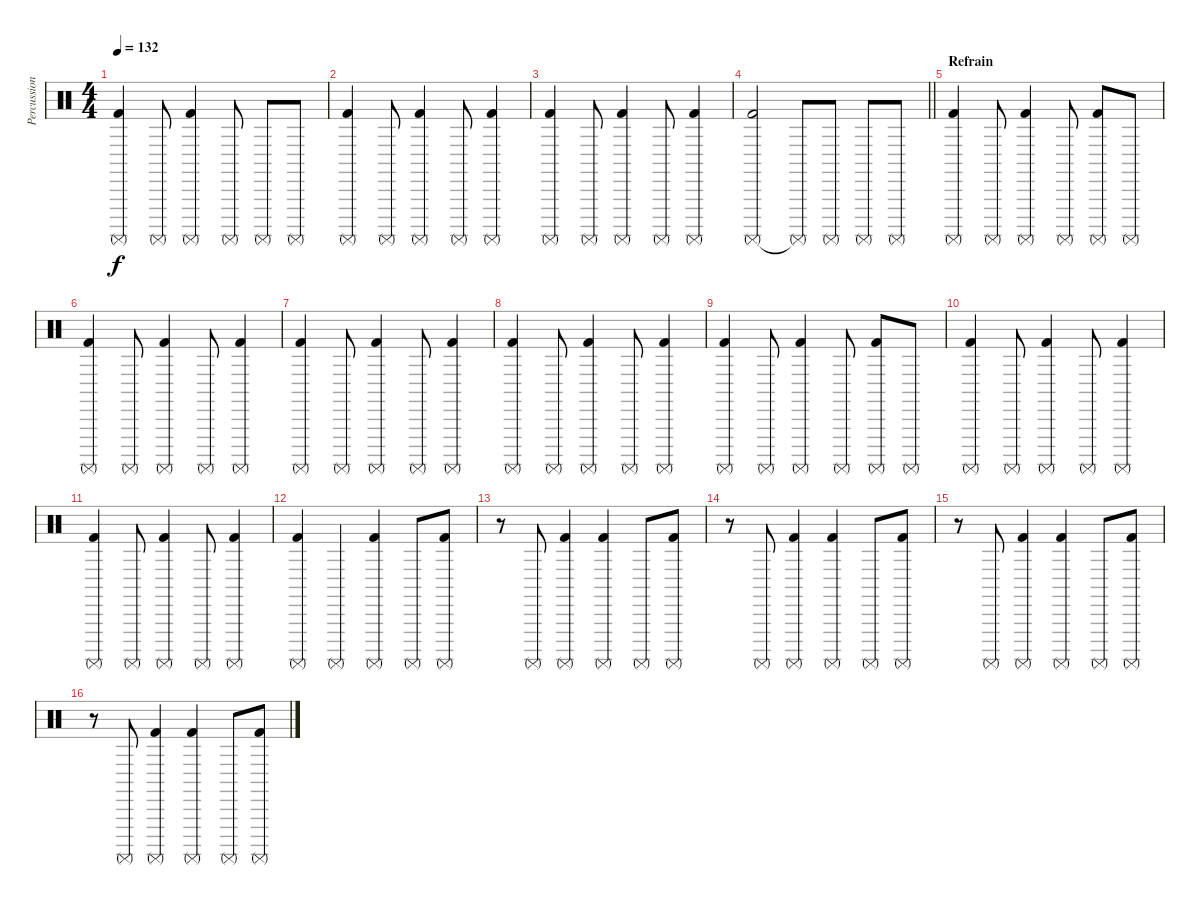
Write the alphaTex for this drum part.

\track ("Percussion" "Percussion") {instrument percussion}
\staff {score}
\articulation defaults
\ts (4 4)
\section ("" "")
\tempo 132
\clef neutral
\ks c
("Surdo (mute)" "Kick (hit) 2").4{dy f} "Surdo (mute)".8 ("Surdo (mute)" "Kick (hit) 2").4 "Surdo (mute)".8 "Surdo (mute)".8 "Surdo (mute)".8 |
("Surdo (mute)" "Kick (hit) 2").4 "Surdo (mute)".8 ("Surdo (mute)" "Kick (hit) 2").4 "Surdo (mute)".8 ("Surdo (mute)" "Kick (hit) 2").4 |
("Surdo (mute)" "Kick (hit) 2").4 "Surdo (mute)".8 ("Surdo (mute)" "Kick (hit) 2").4 "Surdo (mute)".8 ("Surdo (mute)" "Kick (hit) 2").4 |
\barLineRight lightlight
("Surdo (mute)" "Kick (hit) 2").2 "Surdo (mute)"{t}.8 "Surdo (mute)".8 "Surdo (mute)".8 "Surdo (mute)".8 |
\section ("" "Refrain")
("Surdo (mute)" "Kick (hit) 2").4 "Surdo (mute)".8 ("Surdo (mute)" "Kick (hit) 2").4 "Surdo (mute)".8 ("Surdo (mute)" "Kick (hit) 2").8 "Surdo (mute)".8 |
("Surdo (mute)" "Kick (hit) 2").4 "Surdo (mute)".8 ("Surdo (mute)" "Kick (hit) 2").4 "Surdo (mute)".8 ("Surdo (mute)" "Kick (hit) 2").4 |
("Surdo (mute)" "Kick (hit) 2").4 "Surdo (mute)".8 ("Surdo (mute)" "Kick (hit) 2").4 "Surdo (mute)".8 ("Surdo (mute)" "Kick (hit) 2").4 |
("Surdo (mute)" "Kick (hit) 2").4 "Surdo (mute)".8 ("Surdo (mute)" "Kick (hit) 2").4 "Surdo (mute)".8 ("Surdo (mute)" "Kick (hit) 2").4 |
("Surdo (mute)" "Kick (hit) 2").4 "Surdo (mute)".8 ("Surdo (mute)" "Kick (hit) 2").4 "Surdo (mute)".8 ("Surdo (mute)" "Kick (hit) 2").8 "Surdo (mute)".8 |
("Surdo (mute)" "Kick (hit) 2").4 "Surdo (mute)".8 ("Surdo (mute)" "Kick (hit) 2").4 "Surdo (mute)".8 ("Surdo (mute)" "Kick (hit) 2").4 |
("Surdo (mute)" "Kick (hit) 2").4 "Surdo (mute)".8 ("Surdo (mute)" "Kick (hit) 2").4 "Surdo (mute)".8 ("Surdo (mute)" "Kick (hit) 2").4 |
("Surdo (mute)" "Kick (hit) 2").4 "Surdo (mute)".4 ("Surdo (mute)" "Kick (hit) 2").4 "Surdo (mute)".8 ("Surdo (mute)" "Kick (hit) 2").8 |
r.8 "Surdo (mute)".8 ("Surdo (mute)" "Kick (hit) 2").4 ("Surdo (mute)" "Kick (hit) 2").4 "Surdo (mute)".8 ("Surdo (mute)" "Kick (hit) 2").8 |
r.8 "Surdo (mute)".8 ("Surdo (mute)" "Kick (hit) 2").4 ("Surdo (mute)" "Kick (hit) 2").4 "Surdo (mute)".8 ("Surdo (mute)" "Kick (hit) 2").8 |
r.8 "Surdo (mute)".8 ("Surdo (mute)" "Kick (hit) 2").4 ("Surdo (mute)" "Kick (hit) 2").4 "Surdo (mute)".8 ("Surdo (mute)" "Kick (hit) 2").8 |
r.8 "Surdo (mute)".8 ("Surdo (mute)" "Kick (hit) 2").4 ("Surdo (mute)" "Kick (hit) 2").4 "Surdo (mute)".8 ("Surdo (mute)" "Kick (hit) 2").8
